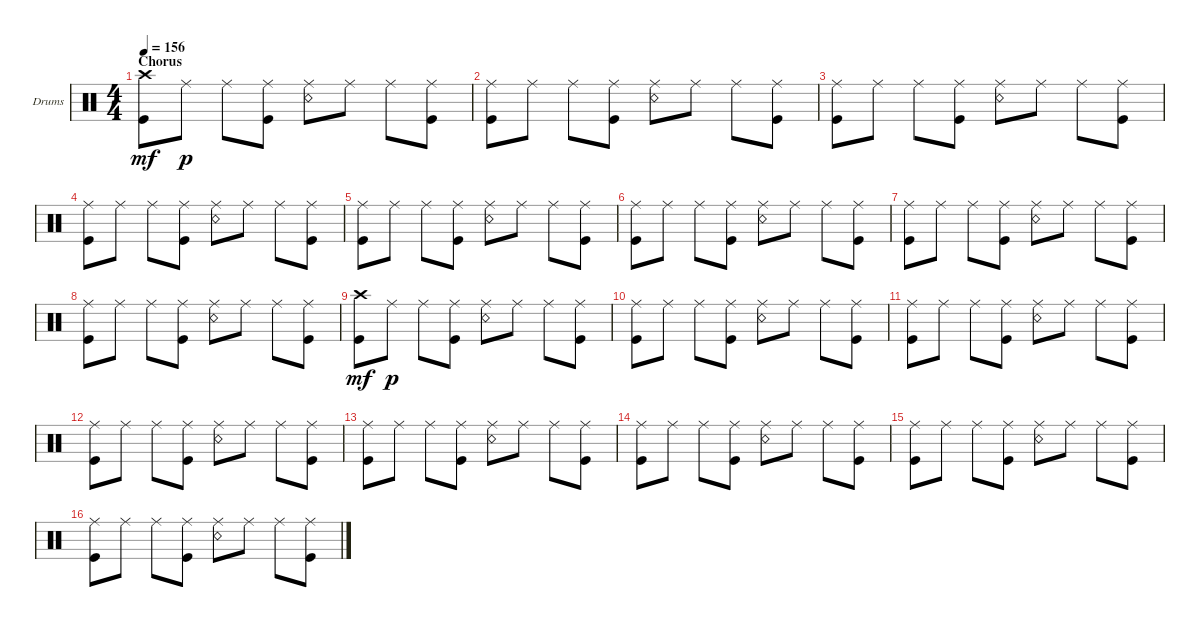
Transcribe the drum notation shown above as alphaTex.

\defaultSystemsLayout 4
\bracketExtendMode groupsimilarinstruments
\firstSystemTrackNameOrientation horizontal
\otherSystemsTrackNameOrientation horizontal
\track ("Drumkit" "Drums") {instrument percussion}
\staff {score}
\articulation defaults
\ts (4 4)
\section ("" "Chorus")
\tempo 156
\clef neutral
\ks c
("Kick (hit)" "Crash high (hit)").8{dy mf} "Ride (middle)".8{dy p} "Ride (middle)".8 ("Ride (middle)" "Kick (hit)").8 ("Ride (middle)" "Snare (rim shot)").8 "Ride (middle)".8 "Ride (middle)".8 ("Ride (middle)" "Kick (hit)").8 |
("Kick (hit)" "Ride (middle)").8 "Ride (middle)".8 "Ride (middle)".8 ("Ride (middle)" "Kick (hit)").8 ("Ride (middle)" "Snare (rim shot)").8 "Ride (middle)".8 "Ride (middle)".8 ("Ride (middle)" "Kick (hit)").8 |
("Kick (hit)" "Ride (middle)").8 "Ride (middle)".8 "Ride (middle)".8 ("Ride (middle)" "Kick (hit)").8 ("Ride (middle)" "Snare (rim shot)").8 "Ride (middle)".8 "Ride (middle)".8 ("Ride (middle)" "Kick (hit)").8 |
("Kick (hit)" "Ride (middle)").8 "Ride (middle)".8 "Ride (middle)".8 ("Ride (middle)" "Kick (hit)").8 ("Ride (middle)" "Snare (rim shot)").8 "Ride (middle)".8 "Ride (middle)".8 ("Ride (middle)" "Kick (hit)").8 |
("Kick (hit)" "Ride (middle)").8 "Ride (middle)".8 "Ride (middle)".8 ("Ride (middle)" "Kick (hit)").8 ("Ride (middle)" "Snare (rim shot)").8 "Ride (middle)".8 "Ride (middle)".8 ("Ride (middle)" "Kick (hit)").8 |
("Kick (hit)" "Ride (middle)").8 "Ride (middle)".8 "Ride (middle)".8 ("Ride (middle)" "Kick (hit)").8 ("Ride (middle)" "Snare (rim shot)").8 "Ride (middle)".8 "Ride (middle)".8 ("Ride (middle)" "Kick (hit)").8 |
("Kick (hit)" "Ride (middle)").8 "Ride (middle)".8 "Ride (middle)".8 ("Ride (middle)" "Kick (hit)").8 ("Ride (middle)" "Snare (rim shot)").8 "Ride (middle)".8 "Ride (middle)".8 ("Ride (middle)" "Kick (hit)").8 |
("Kick (hit)" "Ride (middle)").8 "Ride (middle)".8 "Ride (middle)".8 ("Ride (middle)" "Kick (hit)").8 ("Ride (middle)" "Snare (rim shot)").8 "Ride (middle)".8 "Ride (middle)".8 ("Ride (middle)" "Kick (hit)").8 |
("Kick (hit)" "Crash high (hit)").8{dy mf} "Ride (middle)".8{dy p} "Ride (middle)".8 ("Ride (middle)" "Kick (hit)").8 ("Ride (middle)" "Snare (rim shot)").8 "Ride (middle)".8 "Ride (middle)".8 ("Ride (middle)" "Kick (hit)").8 |
("Kick (hit)" "Ride (middle)").8 "Ride (middle)".8 "Ride (middle)".8 ("Ride (middle)" "Kick (hit)").8 ("Ride (middle)" "Snare (rim shot)").8 "Ride (middle)".8 "Ride (middle)".8 ("Ride (middle)" "Kick (hit)").8 |
("Kick (hit)" "Ride (middle)").8 "Ride (middle)".8 "Ride (middle)".8 ("Ride (middle)" "Kick (hit)").8 ("Ride (middle)" "Snare (rim shot)").8 "Ride (middle)".8 "Ride (middle)".8 ("Ride (middle)" "Kick (hit)").8 |
("Kick (hit)" "Ride (middle)").8 "Ride (middle)".8 "Ride (middle)".8 ("Ride (middle)" "Kick (hit)").8 ("Ride (middle)" "Snare (rim shot)").8 "Ride (middle)".8 "Ride (middle)".8 ("Ride (middle)" "Kick (hit)").8 |
("Kick (hit)" "Ride (middle)").8 "Ride (middle)".8 "Ride (middle)".8 ("Ride (middle)" "Kick (hit)").8 ("Ride (middle)" "Snare (rim shot)").8 "Ride (middle)".8 "Ride (middle)".8 ("Ride (middle)" "Kick (hit)").8 |
("Kick (hit)" "Ride (middle)").8 "Ride (middle)".8 "Ride (middle)".8 ("Ride (middle)" "Kick (hit)").8 ("Ride (middle)" "Snare (rim shot)").8 "Ride (middle)".8 "Ride (middle)".8 ("Ride (middle)" "Kick (hit)").8 |
("Kick (hit)" "Ride (middle)").8 "Ride (middle)".8 "Ride (middle)".8 ("Ride (middle)" "Kick (hit)").8 ("Ride (middle)" "Snare (rim shot)").8 "Ride (middle)".8 "Ride (middle)".8 ("Ride (middle)" "Kick (hit)").8 |
("Kick (hit)" "Ride (middle)").8 "Ride (middle)".8 "Ride (middle)".8 ("Ride (middle)" "Kick (hit)").8 ("Ride (middle)" "Snare (rim shot)").8 "Ride (middle)".8 "Ride (middle)".8 ("Ride (middle)" "Kick (hit)").8
